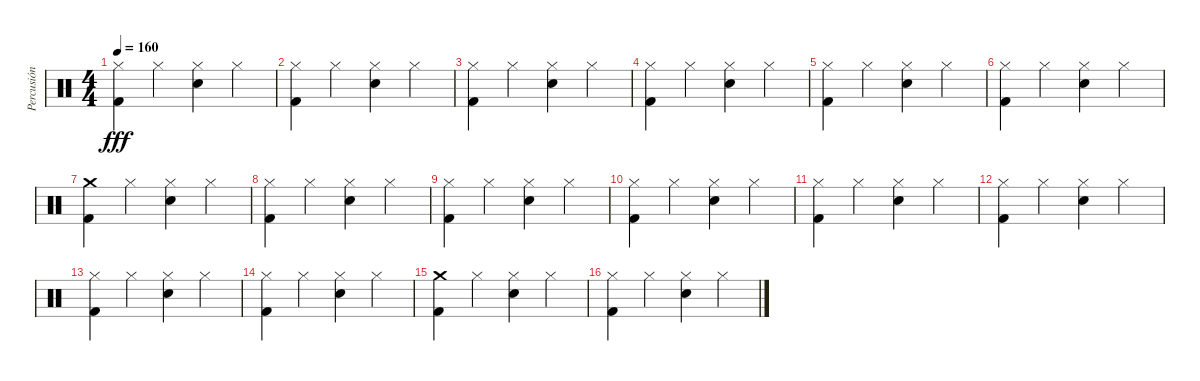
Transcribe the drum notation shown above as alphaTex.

\track ("Percusión" "Percusión") {instrument percussion}
\staff {score}
\articulation defaults
\ts (4 4)
\tempo 160
\clef neutral
\ks c
("Hi-Hat (closed)" "Kick (hit) 2").4{dy fff} "Hi-Hat (closed)".4 ("Hi-Hat (closed)" "Snare (hit) 2").4 "Hi-Hat (closed)".4 |
("Hi-Hat (closed)" "Kick (hit) 2").4 "Hi-Hat (closed)".4 ("Hi-Hat (closed)" "Snare (hit) 2").4 "Hi-Hat (closed)".4 |
("Hi-Hat (closed)" "Kick (hit) 2").4 "Hi-Hat (closed)".4 ("Hi-Hat (closed)" "Snare (hit) 2").4 "Hi-Hat (closed)".4 |
("Hi-Hat (closed)" "Kick (hit) 2").4 "Hi-Hat (closed)".4 ("Hi-Hat (closed)" "Snare (hit) 2").4 "Hi-Hat (closed)".4 |
("Hi-Hat (closed)" "Kick (hit) 2").4 "Hi-Hat (closed)".4 ("Hi-Hat (closed)" "Snare (hit) 2").4 "Hi-Hat (closed)".4 |
("Hi-Hat (closed)" "Kick (hit) 2").4 "Hi-Hat (closed)".4 ("Hi-Hat (closed)" "Snare (hit) 2").4 "Hi-Hat (closed)".4 |
("Crash medium (hit)" "Kick (hit) 2").4 "Hi-Hat (closed)".4 ("Hi-Hat (closed)" "Snare (hit) 2").4 "Hi-Hat (closed)".4 |
("Hi-Hat (closed)" "Kick (hit) 2").4 "Hi-Hat (closed)".4 ("Hi-Hat (closed)" "Snare (hit) 2").4 "Hi-Hat (closed)".4 |
("Hi-Hat (closed)" "Kick (hit) 2").4 "Hi-Hat (closed)".4 ("Hi-Hat (closed)" "Snare (hit) 2").4 "Hi-Hat (closed)".4 |
("Hi-Hat (closed)" "Kick (hit) 2").4 "Hi-Hat (closed)".4 ("Hi-Hat (closed)" "Snare (hit) 2").4 "Hi-Hat (closed)".4 |
("Hi-Hat (closed)" "Kick (hit) 2").4 "Hi-Hat (closed)".4 ("Hi-Hat (closed)" "Snare (hit) 2").4 "Hi-Hat (closed)".4 |
("Hi-Hat (closed)" "Kick (hit) 2").4 "Hi-Hat (closed)".4 ("Hi-Hat (closed)" "Snare (hit) 2").4 "Hi-Hat (closed)".4 |
("Hi-Hat (closed)" "Kick (hit) 2").4 "Hi-Hat (closed)".4 ("Hi-Hat (closed)" "Snare (hit) 2").4 "Hi-Hat (closed)".4 |
("Hi-Hat (closed)" "Kick (hit) 2").4 "Hi-Hat (closed)".4 ("Hi-Hat (closed)" "Snare (hit) 2").4 "Hi-Hat (closed)".4 |
("Crash medium (hit)" "Kick (hit) 2").4 "Hi-Hat (closed)".4 ("Hi-Hat (closed)" "Snare (hit) 2").4 "Hi-Hat (closed)".4 |
("Hi-Hat (closed)" "Kick (hit) 2").4 "Hi-Hat (closed)".4 ("Hi-Hat (closed)" "Snare (hit) 2").4 "Hi-Hat (closed)".4
